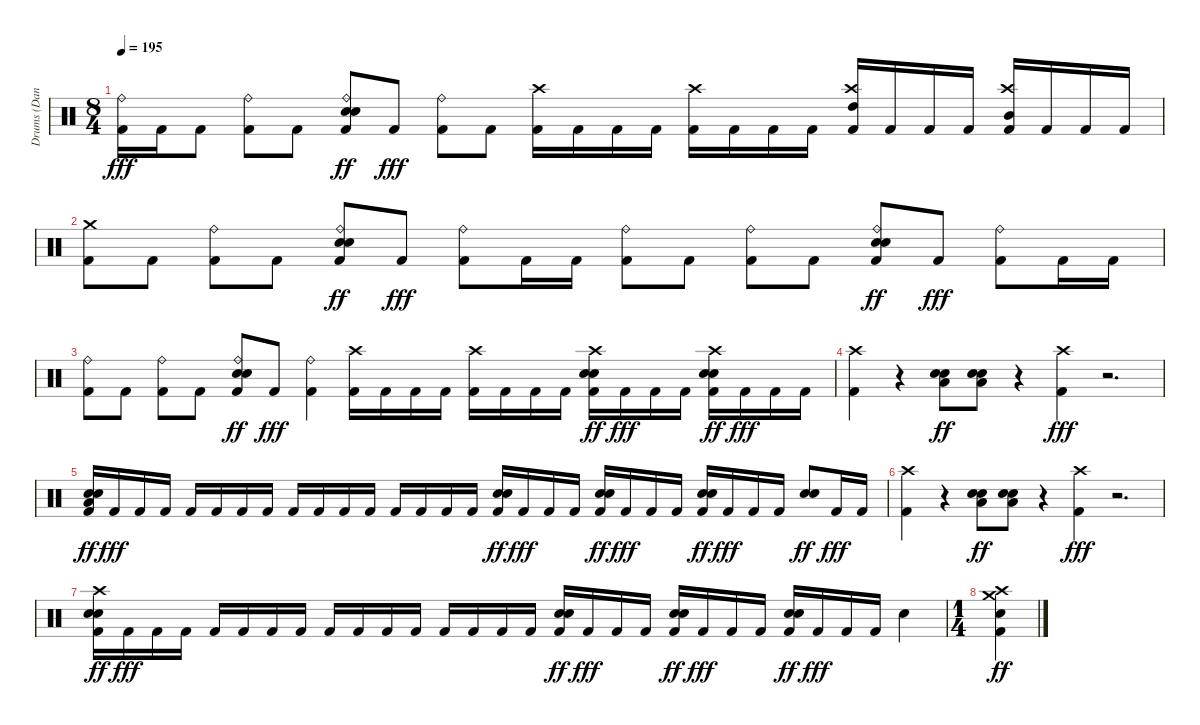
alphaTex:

\track ("Drums (Dan Zimmermann)" "Drums (Dan") {instrument percussion}
\staff {score}
\articulation defaults
\ts (8 4)
\tempo 195
\clef neutral
\ks c
("Kick (hit) 2" "Ride (bell)").16{dy fff} "Kick (hit) 2".16 "Kick (hit) 2".8 ("Kick (hit) 2" "Ride (bell)").8 "Kick (hit) 2".8 ("Metronome (bell)" "Kick (hit) 2" "Ride (bell)" "Snare (hit) 2").8{dy ff} "Kick (hit) 2".8{dy fff} ("Kick (hit) 2" "Ride (bell)").8 "Kick (hit) 2".8 ("Kick (hit) 2" "Crash high (hit)").16 "Kick (hit) 2".16 "Kick (hit) 2".16 "Kick (hit) 2".16 ("Kick (hit) 2" "Crash high (hit)").16 "Kick (hit) 2".16 "Kick (hit) 2".16 "Kick (hit) 2".16 ("Kick (hit) 2" "High Tom (hit)" "Crash high (hit)").16 "Kick (hit) 2".16 "Kick (hit) 2".16 "Kick (hit) 2".16 ("Kick (hit) 2" "Mid Tom (hit)" "Crash high (hit)").16 "Kick (hit) 2".16 "Kick (hit) 2".16 "Kick (hit) 2".16 |
("Kick (hit) 2" "Crash medium (hit)").8 "Kick (hit) 2".8 ("Kick (hit) 2" "Ride (bell)").8 "Kick (hit) 2".8 ("Metronome (bell)" "Kick (hit) 2" "Ride (bell)" "Snare (hit) 2").8{dy ff} "Kick (hit) 2".8{dy fff} ("Kick (hit) 2" "Ride (bell)").8 "Kick (hit) 2".16 "Kick (hit) 2".16 ("Kick (hit) 2" "Ride (bell)").8 "Kick (hit) 2".8 ("Kick (hit) 2" "Ride (bell)").8 "Kick (hit) 2".8 ("Metronome (bell)" "Kick (hit) 2" "Ride (bell)" "Snare (hit) 2").8{dy ff} "Kick (hit) 2".8{dy fff} ("Kick (hit) 2" "Ride (bell)").8 "Kick (hit) 2".16 "Kick (hit) 2".16 |
("Kick (hit) 2" "Ride (bell)").8 "Kick (hit) 2".8 ("Kick (hit) 2" "Ride (bell)").8 "Kick (hit) 2".8 ("Metronome (bell)" "Kick (hit) 2" "Ride (bell)" "Snare (hit) 2").8{dy ff} "Kick (hit) 2".8{dy fff} ("Kick (hit) 2" "Ride (bell)").4 ("Kick (hit) 2" "Crash high (hit)").16 "Kick (hit) 2".16 "Kick (hit) 2".16 "Kick (hit) 2".16 ("Kick (hit) 2" "Crash high (hit)").16 "Kick (hit) 2".16 "Kick (hit) 2".16 "Kick (hit) 2".16 ("Metronome (bell)" "Kick (hit) 2" "Crash high (hit)" "Snare (hit) 2").16{dy ff} "Kick (hit) 2".16{dy fff} "Kick (hit) 2".16 "Kick (hit) 2".16 ("Metronome (bell)" "Kick (hit) 2" "Crash high (hit)" "Snare (hit) 2").16{dy ff} "Kick (hit) 2".16{dy fff} "Kick (hit) 2".16 "Kick (hit) 2".16 |
("Kick (hit) 2" "Crash high (hit)").4 r.4 ("Metronome (bell)" "Low Tom (hit)" "Snare (hit) 2").8{dy ff} ("Metronome (bell)" "Low Tom (hit)" "Snare (hit) 2").8 r.4 ("Kick (hit) 2" "Crash high (hit)").4{dy fff} r.2{d} |
("Metronome (bell)" "Kick (hit) 2" "Low Tom (hit)" "Snare (hit) 2").16{dy ff} "Kick (hit) 2".16{dy fff} "Kick (hit) 2".16 "Kick (hit) 2".16 "Kick (hit) 2".16 "Kick (hit) 2".16 "Kick (hit) 2".16 "Kick (hit) 2".16 "Kick (hit) 2".16 "Kick (hit) 2".16 "Kick (hit) 2".16 "Kick (hit) 2".16 "Kick (hit) 2".16 "Kick (hit) 2".16 "Kick (hit) 2".16 "Kick (hit) 2".16 ("Metronome (bell)" "Kick (hit) 2" "Snare (hit) 2").16{dy ff} "Kick (hit) 2".16{dy fff} "Kick (hit) 2".16 "Kick (hit) 2".16 ("Metronome (bell)" "Kick (hit) 2" "Snare (hit) 2").16{dy ff} "Kick (hit) 2".16{dy fff} "Kick (hit) 2".16 "Kick (hit) 2".16 ("Metronome (bell)" "Kick (hit) 2" "Snare (hit) 2").16{dy ff} "Kick (hit) 2".16{dy fff} "Kick (hit) 2".16 "Kick (hit) 2".16 ("Metronome (bell)" "Snare (hit) 2").8{dy ff} "Kick (hit) 2".16{dy fff} "Kick (hit) 2".16 |
("Kick (hit) 2" "Crash high (hit)").4 r.4 ("Metronome (bell)" "Low Tom (hit)" "Snare (hit) 2").8{dy ff} ("Metronome (bell)" "Low Tom (hit)" "Snare (hit) 2").8 r.4 ("Kick (hit) 2" "Crash high (hit)").4{dy fff} r.2{d} |
("Metronome (bell)" "Kick (hit) 2" "Crash high (hit)" "Snare (hit) 2").16{dy ff} "Kick (hit) 2".16{dy fff} "Kick (hit) 2".16 "Kick (hit) 2".16 "Kick (hit) 2".16 "Kick (hit) 2".16 "Kick (hit) 2".16 "Kick (hit) 2".16 "Kick (hit) 2".16 "Kick (hit) 2".16 "Kick (hit) 2".16 "Kick (hit) 2".16 "Kick (hit) 2".16 "Kick (hit) 2".16 "Kick (hit) 2".16 "Kick (hit) 2".16 ("Metronome (bell)" "Kick (hit) 2" "Snare (hit) 2").16{dy ff} "Kick (hit) 2".16{dy fff} "Kick (hit) 2".16 "Kick (hit) 2".16 ("Metronome (bell)" "Kick (hit) 2" "Snare (hit) 2").16{dy ff} "Kick (hit) 2".16{dy fff} "Kick (hit) 2".16 "Kick (hit) 2".16 ("Metronome (bell)" "Kick (hit) 2" "Snare (hit) 2").16{dy ff} "Kick (hit) 2".16{dy fff} "Kick (hit) 2".16 "Kick (hit) 2".16 "Metronome (bell)".4 |
\ts (1 4)
("Kick (hit) 2" "Crash high (hit)" "Crash medium (hit)" "Snare (hit) 2").4{dy ff}
